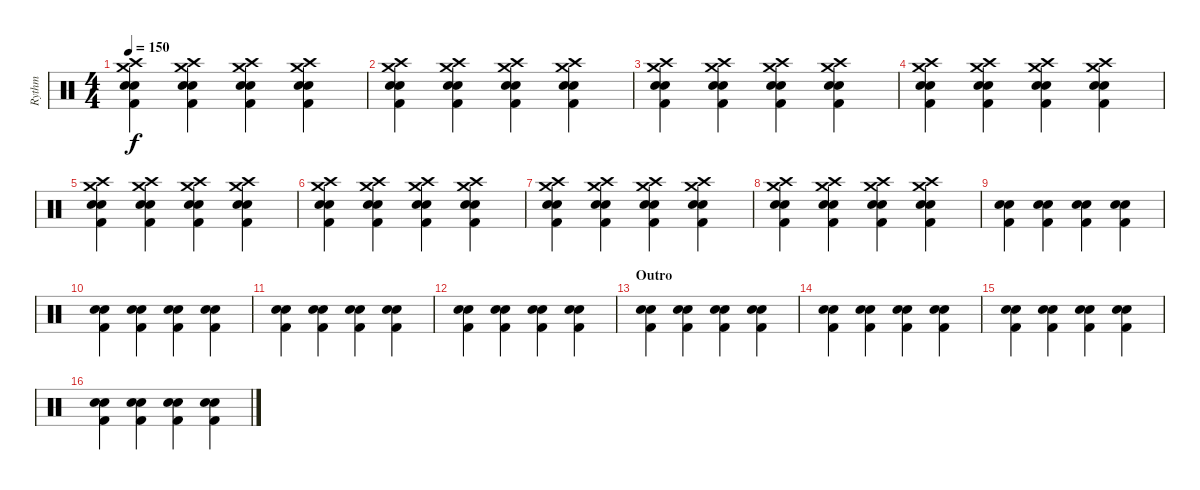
\track ("Rythm" "Rythm") {instrument percussion}
\staff {score}
\articulation defaults
\ts (4 4)
\tempo 150
\clef neutral
\ks c
("Electric Snare (hit)" "Kick (hit) 2" "Snare (hit) 2" "Crash high (hit)" "Crash medium (hit)").4{dy f} ("Electric Snare (hit)" "Kick (hit) 2" "Snare (hit) 2" "Crash high (hit)" "Crash medium (hit)").4 ("Electric Snare (hit)" "Kick (hit) 2" "Snare (hit) 2" "Crash high (hit)" "Crash medium (hit)").4 ("Electric Snare (hit)" "Kick (hit) 2" "Snare (hit) 2" "Crash high (hit)" "Crash medium (hit)").4 |
("Electric Snare (hit)" "Kick (hit) 2" "Snare (hit) 2" "Crash high (hit)" "Crash medium (hit)").4 ("Electric Snare (hit)" "Kick (hit) 2" "Snare (hit) 2" "Crash high (hit)" "Crash medium (hit)").4 ("Electric Snare (hit)" "Kick (hit) 2" "Snare (hit) 2" "Crash high (hit)" "Crash medium (hit)").4 ("Electric Snare (hit)" "Kick (hit) 2" "Snare (hit) 2" "Crash high (hit)" "Crash medium (hit)").4 |
("Electric Snare (hit)" "Kick (hit) 2" "Snare (hit) 2" "Crash high (hit)" "Crash medium (hit)").4 ("Electric Snare (hit)" "Kick (hit) 2" "Snare (hit) 2" "Crash high (hit)" "Crash medium (hit)").4 ("Electric Snare (hit)" "Kick (hit) 2" "Snare (hit) 2" "Crash high (hit)" "Crash medium (hit)").4 ("Electric Snare (hit)" "Kick (hit) 2" "Snare (hit) 2" "Crash high (hit)" "Crash medium (hit)").4 |
("Electric Snare (hit)" "Kick (hit) 2" "Snare (hit) 2" "Crash high (hit)" "Crash medium (hit)").4 ("Electric Snare (hit)" "Kick (hit) 2" "Snare (hit) 2" "Crash high (hit)" "Crash medium (hit)").4 ("Electric Snare (hit)" "Kick (hit) 2" "Snare (hit) 2" "Crash high (hit)" "Crash medium (hit)").4 ("Electric Snare (hit)" "Kick (hit) 2" "Snare (hit) 2" "Crash high (hit)" "Crash medium (hit)").4 |
("Electric Snare (hit)" "Kick (hit) 2" "Snare (hit) 2" "Crash high (hit)" "Crash medium (hit)").4 ("Electric Snare (hit)" "Kick (hit) 2" "Snare (hit) 2" "Crash high (hit)" "Crash medium (hit)").4 ("Electric Snare (hit)" "Kick (hit) 2" "Snare (hit) 2" "Crash high (hit)" "Crash medium (hit)").4 ("Electric Snare (hit)" "Kick (hit) 2" "Snare (hit) 2" "Crash high (hit)" "Crash medium (hit)").4 |
("Electric Snare (hit)" "Kick (hit) 2" "Snare (hit) 2" "Crash high (hit)" "Crash medium (hit)").4 ("Electric Snare (hit)" "Kick (hit) 2" "Snare (hit) 2" "Crash high (hit)" "Crash medium (hit)").4 ("Electric Snare (hit)" "Kick (hit) 2" "Snare (hit) 2" "Crash high (hit)" "Crash medium (hit)").4 ("Electric Snare (hit)" "Kick (hit) 2" "Snare (hit) 2" "Crash high (hit)" "Crash medium (hit)").4 |
("Electric Snare (hit)" "Kick (hit) 2" "Snare (hit) 2" "Crash high (hit)" "Crash medium (hit)").4 ("Electric Snare (hit)" "Kick (hit) 2" "Snare (hit) 2" "Crash high (hit)" "Crash medium (hit)").4 ("Electric Snare (hit)" "Kick (hit) 2" "Snare (hit) 2" "Crash high (hit)" "Crash medium (hit)").4 ("Electric Snare (hit)" "Kick (hit) 2" "Snare (hit) 2" "Crash high (hit)" "Crash medium (hit)").4 |
("Electric Snare (hit)" "Kick (hit) 2" "Snare (hit) 2" "Crash high (hit)" "Crash medium (hit)").4 ("Electric Snare (hit)" "Kick (hit) 2" "Snare (hit) 2" "Crash high (hit)" "Crash medium (hit)").4 ("Electric Snare (hit)" "Kick (hit) 2" "Snare (hit) 2" "Crash high (hit)" "Crash medium (hit)").4 ("Electric Snare (hit)" "Kick (hit) 2" "Snare (hit) 2" "Crash high (hit)" "Crash medium (hit)").4 |
("Electric Snare (hit)" "Kick (hit) 2" "Snare (hit) 2").4 ("Electric Snare (hit)" "Kick (hit) 2" "Snare (hit) 2").4 ("Electric Snare (hit)" "Kick (hit) 2" "Snare (hit) 2").4 ("Electric Snare (hit)" "Kick (hit) 2" "Snare (hit) 2").4 |
("Electric Snare (hit)" "Kick (hit) 2" "Snare (hit) 2").4 ("Electric Snare (hit)" "Kick (hit) 2" "Snare (hit) 2").4 ("Electric Snare (hit)" "Kick (hit) 2" "Snare (hit) 2").4 ("Electric Snare (hit)" "Kick (hit) 2" "Snare (hit) 2").4 |
("Electric Snare (hit)" "Kick (hit) 2" "Snare (hit) 2").4 ("Electric Snare (hit)" "Kick (hit) 2" "Snare (hit) 2").4 ("Electric Snare (hit)" "Kick (hit) 2" "Snare (hit) 2").4 ("Electric Snare (hit)" "Kick (hit) 2" "Snare (hit) 2").4 |
("Electric Snare (hit)" "Kick (hit) 2" "Snare (hit) 2").4 ("Electric Snare (hit)" "Kick (hit) 2" "Snare (hit) 2").4 ("Electric Snare (hit)" "Kick (hit) 2" "Snare (hit) 2").4 ("Electric Snare (hit)" "Kick (hit) 2" "Snare (hit) 2").4 |
\section ("" "Outro")
("Electric Snare (hit)" "Kick (hit) 2" "Snare (hit) 2").4 ("Electric Snare (hit)" "Kick (hit) 2" "Snare (hit) 2").4 ("Electric Snare (hit)" "Kick (hit) 2" "Snare (hit) 2").4 ("Electric Snare (hit)" "Kick (hit) 2" "Snare (hit) 2").4 |
("Electric Snare (hit)" "Kick (hit) 2" "Snare (hit) 2").4 ("Electric Snare (hit)" "Kick (hit) 2" "Snare (hit) 2").4 ("Electric Snare (hit)" "Kick (hit) 2" "Snare (hit) 2").4 ("Electric Snare (hit)" "Kick (hit) 2" "Snare (hit) 2").4 |
("Electric Snare (hit)" "Kick (hit) 2" "Snare (hit) 2").4 ("Electric Snare (hit)" "Kick (hit) 2" "Snare (hit) 2").4 ("Electric Snare (hit)" "Kick (hit) 2" "Snare (hit) 2").4 ("Electric Snare (hit)" "Kick (hit) 2" "Snare (hit) 2").4 |
("Electric Snare (hit)" "Kick (hit) 2" "Snare (hit) 2").4 ("Electric Snare (hit)" "Kick (hit) 2" "Snare (hit) 2").4 ("Electric Snare (hit)" "Kick (hit) 2" "Snare (hit) 2").4 ("Electric Snare (hit)" "Kick (hit) 2" "Snare (hit) 2").4
